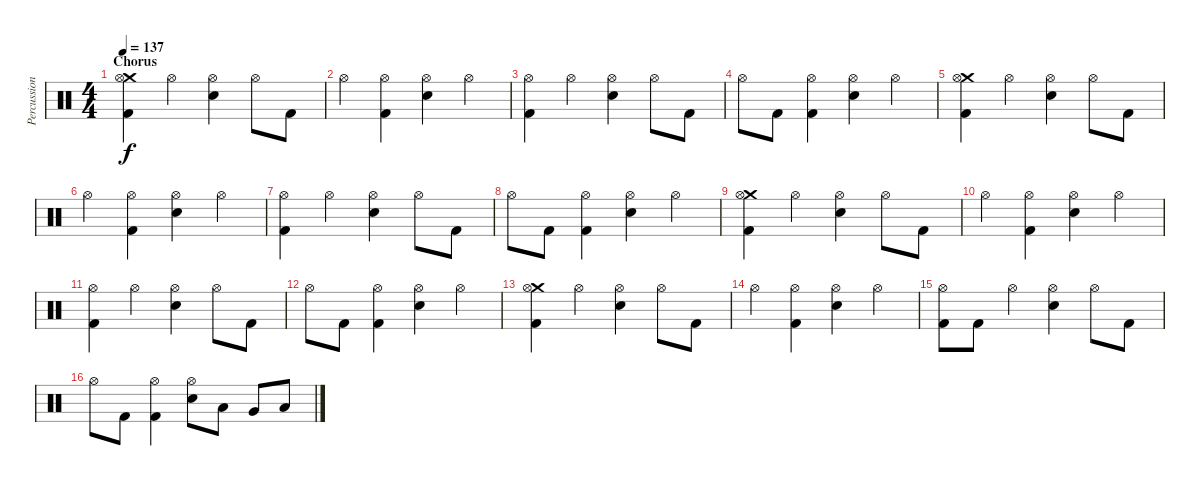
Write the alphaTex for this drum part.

\track ("Percussion" "Percussion") {instrument percussion}
\staff {score}
\articulation defaults
\ts (4 4)
\section ("" "Chorus")
\tempo 137
\clef neutral
\ks c
("Crash medium (hit)" "Hi-Hat (open)" "Kick (hit) 2").4{dy f} "Hi-Hat (open)".4 ("Hi-Hat (open)" "Electric Snare (hit)").4 "Hi-Hat (open)".8 "Kick (hit) 2".8 |
"Hi-Hat (open)".4 ("Hi-Hat (open)" "Kick (hit) 2").4 ("Hi-Hat (open)" "Electric Snare (hit)").4 "Hi-Hat (open)".4 |
("Hi-Hat (open)" "Kick (hit) 2").4 "Hi-Hat (open)".4 ("Hi-Hat (open)" "Electric Snare (hit)").4 "Hi-Hat (open)".8 "Kick (hit) 2".8 |
"Hi-Hat (open)".8 "Kick (hit) 2".8 ("Hi-Hat (open)" "Kick (hit) 2").4 ("Hi-Hat (open)" "Electric Snare (hit)").4 "Hi-Hat (open)".4 |
("Crash medium (hit)" "Hi-Hat (open)" "Kick (hit) 2").4 "Hi-Hat (open)".4 ("Hi-Hat (open)" "Electric Snare (hit)").4 "Hi-Hat (open)".8 "Kick (hit) 2".8 |
"Hi-Hat (open)".4 ("Hi-Hat (open)" "Kick (hit) 2").4 ("Hi-Hat (open)" "Electric Snare (hit)").4 "Hi-Hat (open)".4 |
("Hi-Hat (open)" "Kick (hit) 2").4 "Hi-Hat (open)".4 ("Hi-Hat (open)" "Electric Snare (hit)").4 "Hi-Hat (open)".8 "Kick (hit) 2".8 |
"Hi-Hat (open)".8 "Kick (hit) 2".8 ("Hi-Hat (open)" "Kick (hit) 2").4 ("Hi-Hat (open)" "Electric Snare (hit)").4 "Hi-Hat (open)".4 |
("Crash medium (hit)" "Hi-Hat (open)" "Kick (hit) 2").4 "Hi-Hat (open)".4 ("Hi-Hat (open)" "Electric Snare (hit)").4 "Hi-Hat (open)".8 "Kick (hit) 2".8 |
"Hi-Hat (open)".4 ("Hi-Hat (open)" "Kick (hit) 2").4 ("Hi-Hat (open)" "Electric Snare (hit)").4 "Hi-Hat (open)".4 |
("Hi-Hat (open)" "Kick (hit) 2").4 "Hi-Hat (open)".4 ("Hi-Hat (open)" "Electric Snare (hit)").4 "Hi-Hat (open)".8 "Kick (hit) 2".8 |
"Hi-Hat (open)".8 "Kick (hit) 2".8 ("Hi-Hat (open)" "Kick (hit) 2").4 ("Hi-Hat (open)" "Electric Snare (hit)").4 "Hi-Hat (open)".4 |
("Crash medium (hit)" "Hi-Hat (open)" "Kick (hit) 2").4 "Hi-Hat (open)".4 ("Hi-Hat (open)" "Electric Snare (hit)").4 "Hi-Hat (open)".8 "Kick (hit) 2".8 |
"Hi-Hat (open)".4 ("Hi-Hat (open)" "Kick (hit) 2").4 ("Hi-Hat (open)" "Electric Snare (hit)").4 "Hi-Hat (open)".4 |
("Hi-Hat (open)" "Kick (hit) 2").8 "Kick (hit) 2".8 "Hi-Hat (open)".4 ("Hi-Hat (open)" "Electric Snare (hit)").4 "Hi-Hat (open)".8 "Kick (hit) 2".8 |
"Hi-Hat (open)".8 "Kick (hit) 2".8 ("Hi-Hat (open)" "Kick (hit) 2").4 ("Hi-Hat (open)" "Electric Snare (hit)").8 "Low Tom (hit)".8 "Very Low Tom (hit)".8 "Low Floor Tom (hit)".8
